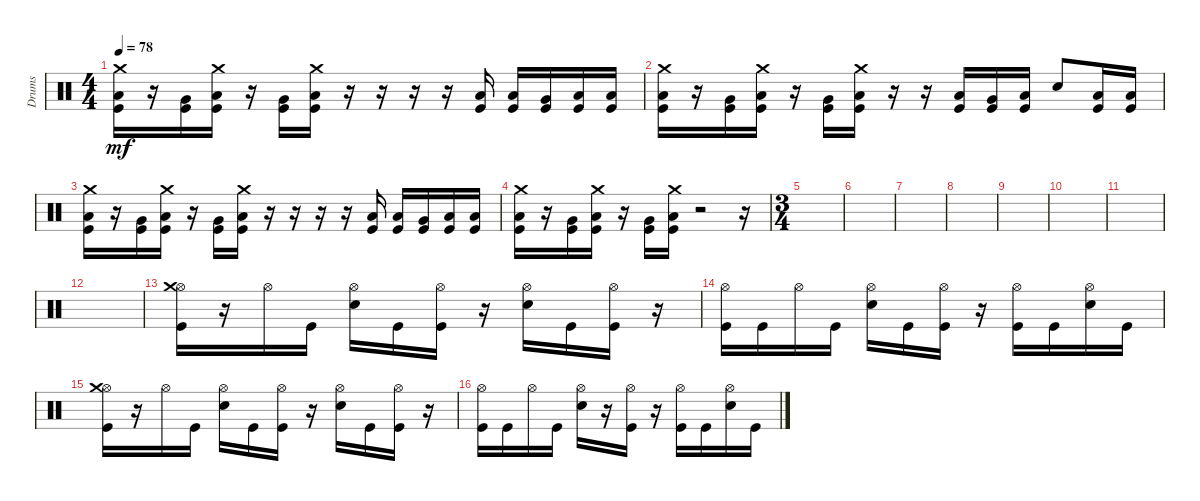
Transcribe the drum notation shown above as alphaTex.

\track ("Drums" "Drums") {instrument percussion}
\staff {score}
\articulation defaults
\ts (4 4)
\tempo 78
\clef neutral
\ks c
("Crash medium (hit)" "Kick (hit)" "Low Floor Tom (hit)").16{dy mf} r.16 ("Kick (hit)" "Very Low Tom (hit)").16 ("Crash medium (hit)" "Kick (hit)" "Low Floor Tom (hit)").16 r.16 ("Kick (hit)" "Very Low Tom (hit)").16 ("Crash medium (hit)" "Kick (hit)" "Low Floor Tom (hit)").16 r.16 r.16 r.16 r.16 ("Kick (hit)" "Low Floor Tom (hit)").16 ("Kick (hit)" "Low Tom (hit)").16 ("Kick (hit)" "Very Low Tom (hit)").16 ("Kick (hit)" "Low Floor Tom (hit)").16 ("Kick (hit)" "Low Tom (hit)").16 |
("Crash medium (hit)" "Kick (hit)" "Low Floor Tom (hit)").16 r.16 ("Kick (hit)" "Very Low Tom (hit)").16 ("Crash medium (hit)" "Kick (hit)" "Low Floor Tom (hit)").16 r.16 ("Kick (hit)" "Very Low Tom (hit)").16 ("Crash medium (hit)" "Kick (hit)" "Low Floor Tom (hit)").16 r.16 r.16 ("Kick (hit)" "Low Floor Tom (hit)").16 ("Kick (hit)" "Very Low Tom (hit)").16 ("Kick (hit)" "Low Floor Tom (hit)").16 "Snare (hit) 2".8 ("Low Floor Tom (hit)" "Kick (hit)").16 ("Low Tom (hit)" "Kick (hit)").16 |
("Crash medium (hit)" "Kick (hit)" "Low Floor Tom (hit)").16 r.16 ("Kick (hit)" "Very Low Tom (hit)").16 ("Crash medium (hit)" "Kick (hit)" "Low Floor Tom (hit)").16 r.16 ("Kick (hit)" "Very Low Tom (hit)").16 ("Crash medium (hit)" "Kick (hit)" "Low Floor Tom (hit)").16 r.16 r.16 r.16 r.16 ("Kick (hit)" "Low Floor Tom (hit)").16 ("Kick (hit)" "Low Tom (hit)").16 ("Kick (hit)" "Very Low Tom (hit)").16 ("Kick (hit)" "Low Floor Tom (hit)").16 ("Kick (hit)" "Low Tom (hit)").16 |
("Crash medium (hit)" "Kick (hit)" "Low Floor Tom (hit)").16 r.16 ("Kick (hit)" "Very Low Tom (hit)").16 ("Crash medium (hit)" "Kick (hit)" "Low Floor Tom (hit)").16 r.16 ("Kick (hit)" "Very Low Tom (hit)").16 ("Crash medium (hit)" "Kick (hit)" "Low Floor Tom (hit)").16 r.2 r.16 |
\ts (3 4)
|
|
|
|
|
|
|
|
("Hi-Hat (open)" "Kick (hit)" "Crash medium (hit)").16 r.16 "Hi-Hat (open)".16 "Kick (hit)".16 ("Hi-Hat (open)" "Snare (hit) 2").16 "Kick (hit)".16 ("Hi-Hat (open)" "Kick (hit)").16 r.16 ("Hi-Hat (open)" "Snare (hit) 2").16 "Kick (hit)".16 ("Hi-Hat (open)" "Kick (hit)").16 r.16 |
("Hi-Hat (open)" "Kick (hit)").16 "Kick (hit)".16 "Hi-Hat (open)".16 "Kick (hit)".16 ("Hi-Hat (open)" "Snare (hit) 2").16 "Kick (hit)".16 ("Hi-Hat (open)" "Kick (hit)").16 r.16 ("Hi-Hat (open)" "Kick (hit)").16 "Kick (hit)".16 ("Hi-Hat (open)" "Snare (hit) 2").16 "Kick (hit)".16 |
("Hi-Hat (open)" "Kick (hit)" "Crash medium (hit)").16 r.16 "Hi-Hat (open)".16 "Kick (hit)".16 ("Hi-Hat (open)" "Snare (hit) 2").16 "Kick (hit)".16 ("Kick (hit)" "Hi-Hat (open)").16 r.16 ("Hi-Hat (open)" "Snare (hit) 2").16 "Kick (hit)".16 ("Kick (hit)" "Hi-Hat (open)").16 r.16 |
("Kick (hit)" "Hi-Hat (open)").16 "Kick (hit)".16 "Hi-Hat (open)".16 "Kick (hit)".16 ("Snare (hit) 2" "Hi-Hat (open)").16 r.16 ("Kick (hit)" "Hi-Hat (open)").16 r.16 ("Kick (hit)" "Hi-Hat (open)").16 "Kick (hit)".16 ("Snare (hit) 2" "Hi-Hat (open)").16 "Kick (hit)".16
